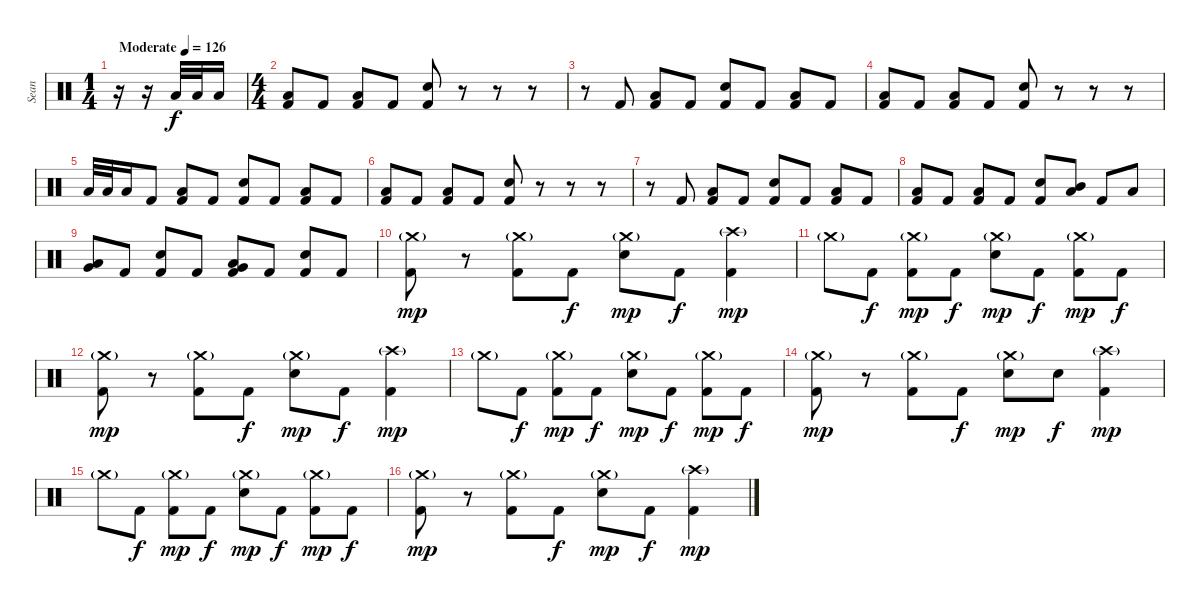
\track ("Sean" "Sean") {instrument percussion}
\staff {score}
\articulation defaults
\ts (1 4)
\tempo (126 "Moderate")
\clef neutral
\ks c
r.16{dy f} r.16 "Low Floor Tom (hit)".32 "Low Floor Tom (hit)".32 "Low Floor Tom (hit)".16 |
\ts (4 4)
("Low Floor Tom (hit)" "Kick (hit) 2").8 "Kick (hit) 2".8 ("Low Floor Tom (hit)" "Kick (hit) 2").8 "Kick (hit) 2".8 ("Electric Snare (hit)" "Kick (hit) 2").8 r.8 r.8 r.8 |
r.8 "Kick (hit) 2".8 ("Low Floor Tom (hit)" "Kick (hit) 2").8 "Kick (hit) 2".8 ("Electric Snare (hit)" "Kick (hit) 2").8 "Kick (hit) 2".8 ("Low Floor Tom (hit)" "Kick (hit) 2").8 "Kick (hit) 2".8 |
("Low Floor Tom (hit)" "Kick (hit) 2").8 "Kick (hit) 2".8 ("Low Floor Tom (hit)" "Kick (hit) 2").8 "Kick (hit) 2".8 ("Electric Snare (hit)" "Kick (hit) 2").8 r.8 r.8 r.8 |
"Low Floor Tom (hit)".32 "Low Floor Tom (hit)".32 "Low Floor Tom (hit)".16 "Kick (hit) 2".8 ("Low Floor Tom (hit)" "Kick (hit) 2").8 "Kick (hit) 2".8 ("Electric Snare (hit)" "Kick (hit) 2").8 "Kick (hit) 2".8 ("Low Floor Tom (hit)" "Kick (hit) 2").8 "Kick (hit) 2".8 |
("Low Floor Tom (hit)" "Kick (hit) 2").8 "Kick (hit) 2".8 ("Low Floor Tom (hit)" "Kick (hit) 2").8 "Kick (hit) 2".8 ("Electric Snare (hit)" "Kick (hit) 2").8 r.8 r.8 r.8 |
r.8 "Kick (hit) 2".8 ("Low Floor Tom (hit)" "Kick (hit) 2").8 "Kick (hit) 2".8 ("Electric Snare (hit)" "Kick (hit) 2").8 "Kick (hit) 2".8 ("Low Floor Tom (hit)" "Kick (hit) 2").8 "Kick (hit) 2".8 |
("Low Floor Tom (hit)" "Kick (hit) 2").8 "Kick (hit) 2".8 ("Low Floor Tom (hit)" "Kick (hit) 2").8 "Kick (hit) 2".8 ("Electric Snare (hit)" "Kick (hit) 2").8 ("Mid Tom (hit)" "Low Tom (hit)").8 "Kick (hit) 2".8 "Low Tom (hit)".8 |
("Very Low Tom (hit)" "Low Tom (hit)").8 "Kick (hit) 2".8 ("Electric Snare (hit)" "Kick (hit) 2").8 "Kick (hit) 2".8 ("Very Low Tom (hit)" "Low Tom (hit)" "Kick (hit) 2").8 "Kick (hit) 2".8 ("Electric Snare (hit)" "Kick (hit) 2").8 "Kick (hit) 2".8 |
("Crash medium (hit)"{g} "Kick (hit) 2").8{dy mp} r.8 ("Crash medium (hit)"{g} "Kick (hit) 2").8 "Kick (hit) 2".8{dy f} ("Crash medium (hit)"{g} "Electric Snare (hit)").8{dy mp} "Kick (hit) 2".8{dy f} ("Crash high (hit)"{g} "Kick (hit) 2").4{dy mp} |
"Crash medium (hit)"{g}.8 "Kick (hit) 2".8{dy f} ("Crash medium (hit)"{g} "Kick (hit) 2").8{dy mp} "Kick (hit) 2".8{dy f} ("Crash medium (hit)"{g} "Electric Snare (hit)").8{dy mp} "Kick (hit) 2".8{dy f} ("Crash medium (hit)"{g} "Kick (hit) 2").8{dy mp} "Kick (hit) 2".8{dy f} |
("Crash medium (hit)"{g} "Kick (hit) 2").8{dy mp} r.8 ("Crash medium (hit)"{g} "Kick (hit) 2").8 "Kick (hit) 2".8{dy f} ("Crash medium (hit)"{g} "Electric Snare (hit)").8{dy mp} "Kick (hit) 2".8{dy f} ("Crash high (hit)"{g} "Kick (hit) 2").4{dy mp} |
"Crash medium (hit)"{g}.8 "Kick (hit) 2".8{dy f} ("Crash medium (hit)"{g} "Kick (hit) 2").8{dy mp} "Kick (hit) 2".8{dy f} ("Crash medium (hit)"{g} "Electric Snare (hit)").8{dy mp} "Kick (hit) 2".8{dy f} ("Crash medium (hit)"{g} "Kick (hit) 2").8{dy mp} "Kick (hit) 2".8{dy f} |
("Crash medium (hit)"{g} "Kick (hit) 2").8{dy mp} r.8 ("Crash medium (hit)"{g} "Kick (hit) 2").8 "Kick (hit) 2".8{dy f} ("Crash medium (hit)"{g} "Electric Snare (hit)").8{dy mp} "Electric Snare (hit)".8{dy f} ("Crash high (hit)"{g} "Kick (hit) 2").4{dy mp} |
"Crash medium (hit)"{g}.8 "Kick (hit) 2".8{dy f} ("Crash medium (hit)"{g} "Kick (hit) 2").8{dy mp} "Kick (hit) 2".8{dy f} ("Crash medium (hit)"{g} "Electric Snare (hit)").8{dy mp} "Kick (hit) 2".8{dy f} ("Crash medium (hit)"{g} "Kick (hit) 2").8{dy mp} "Kick (hit) 2".8{dy f} |
("Crash medium (hit)"{g} "Kick (hit) 2").8{dy mp} r.8 ("Crash medium (hit)"{g} "Kick (hit) 2").8 "Kick (hit) 2".8{dy f} ("Crash medium (hit)"{g} "Electric Snare (hit)").8{dy mp} "Kick (hit) 2".8{dy f} ("Crash high (hit)"{g} "Kick (hit) 2").4{dy mp}
